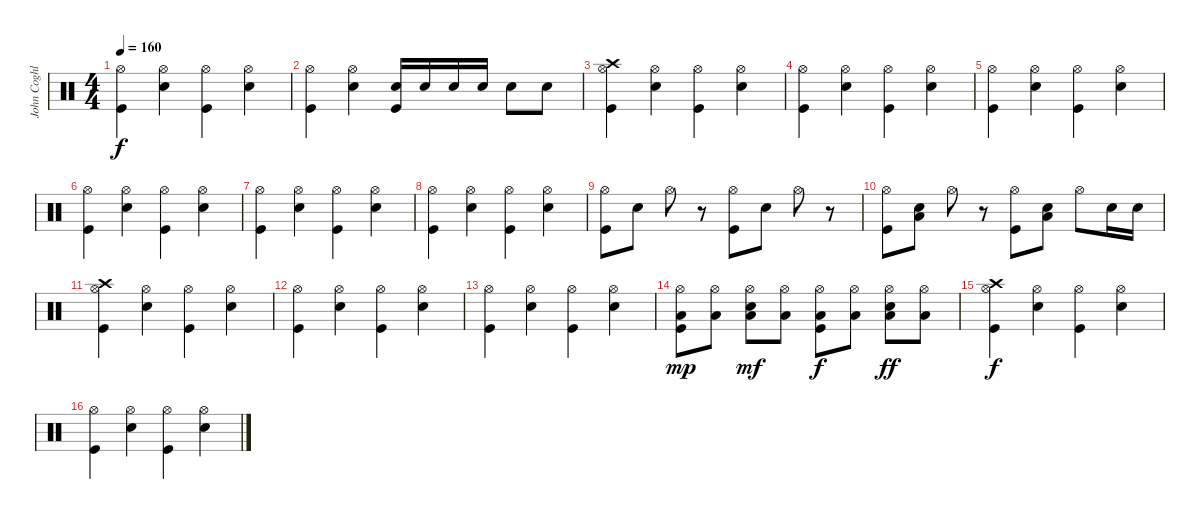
\track ("John Coghlan" "John Coghl") {instrument percussion}
\staff {score}
\articulation defaults
\ts (4 4)
\tempo 160
\clef neutral
\ks c
("Hi-Hat (open)" "Kick (hit)").4{dy f} ("Electric Snare (hit)" "Hi-Hat (open)").4 ("Hi-Hat (open)" "Kick (hit)").4 ("Electric Snare (hit)" "Hi-Hat (open)").4 |
("Hi-Hat (open)" "Kick (hit)").4 ("Electric Snare (hit)" "Hi-Hat (open)").4 ("Electric Snare (hit)" "Kick (hit)").16 "Electric Snare (hit)".16 "Electric Snare (hit)".16 "Electric Snare (hit)".16 "Electric Snare (hit)".8 "Electric Snare (hit)".8 |
("Crash high (hit)" "Hi-Hat (open)" "Kick (hit)").4 ("Hi-Hat (open)" "Electric Snare (hit)").4 ("Hi-Hat (open)" "Kick (hit)").4 ("Hi-Hat (open)" "Electric Snare (hit)").4 |
("Hi-Hat (open)" "Kick (hit)").4 ("Hi-Hat (open)" "Electric Snare (hit)").4 ("Hi-Hat (open)" "Kick (hit)").4 ("Hi-Hat (open)" "Electric Snare (hit)").4 |
("Hi-Hat (open)" "Kick (hit)").4 ("Hi-Hat (open)" "Electric Snare (hit)").4 ("Hi-Hat (open)" "Kick (hit)").4 ("Hi-Hat (open)" "Electric Snare (hit)").4 |
("Hi-Hat (open)" "Kick (hit)").4 ("Electric Snare (hit)" "Hi-Hat (open)").4 ("Hi-Hat (open)" "Kick (hit)").4 ("Electric Snare (hit)" "Hi-Hat (open)").4 |
("Hi-Hat (open)" "Kick (hit)").4 ("Electric Snare (hit)" "Hi-Hat (open)").4 ("Hi-Hat (open)" "Kick (hit)").4 ("Electric Snare (hit)" "Hi-Hat (open)").4 |
("Hi-Hat (open)" "Kick (hit)").4 ("Electric Snare (hit)" "Hi-Hat (open)").4 ("Hi-Hat (open)" "Kick (hit)").4 ("Electric Snare (hit)" "Hi-Hat (open)").4 |
("Hi-Hat (open)" "Kick (hit)").8 "Electric Snare (hit)".8 "Hi-Hat (open)".8 r.8 ("Hi-Hat (open)" "Kick (hit)").8 "Electric Snare (hit)".8 "Hi-Hat (open)".8 r.8 |
("Hi-Hat (open)" "Kick (hit)").8 ("Electric Snare (hit)" "Low Tom (hit)").8 "Hi-Hat (open)".8 r.8 ("Hi-Hat (open)" "Kick (hit)").8 ("Electric Snare (hit)" "Low Floor Tom (hit)").8 "Hi-Hat (open)".8 "Electric Snare (hit)".16 "Electric Snare (hit)".16 |
("Crash high (hit)" "Hi-Hat (open)" "Kick (hit)").4 ("Electric Snare (hit)" "Hi-Hat (open)").4 ("Hi-Hat (open)" "Kick (hit)").4 ("Electric Snare (hit)" "Hi-Hat (open)").4 |
("Hi-Hat (open)" "Kick (hit)").4 ("Electric Snare (hit)" "Hi-Hat (open)").4 ("Hi-Hat (open)" "Kick (hit)").4 ("Electric Snare (hit)" "Hi-Hat (open)").4 |
("Hi-Hat (open)" "Kick (hit)").4 ("Electric Snare (hit)" "Hi-Hat (open)").4 ("Hi-Hat (open)" "Kick (hit)").4 ("Electric Snare (hit)" "Hi-Hat (open)").4 |
("Low Floor Tom (hit)" "Hi-Hat (open)" "Kick (hit)").8{dy mp} ("Low Floor Tom (hit)" "Hi-Hat (open)").8 ("Low Floor Tom (hit)" "Electric Snare (hit)" "Hi-Hat (open)").8{dy mf} ("Low Floor Tom (hit)" "Hi-Hat (open)").8 ("Low Floor Tom (hit)" "Hi-Hat (open)" "Kick (hit)").8{dy f} ("Low Floor Tom (hit)" "Hi-Hat (open)").8 ("Low Floor Tom (hit)" "Electric Snare (hit)" "Hi-Hat (open)").8{dy ff} ("Low Floor Tom (hit)" "Hi-Hat (open)").8 |
("Crash high (hit)" "Hi-Hat (open)" "Kick (hit)").4{dy f} ("Electric Snare (hit)" "Hi-Hat (open)").4 ("Hi-Hat (open)" "Kick (hit)").4 ("Electric Snare (hit)" "Hi-Hat (open)").4 |
("Hi-Hat (open)" "Kick (hit)").4 ("Electric Snare (hit)" "Hi-Hat (open)").4 ("Hi-Hat (open)" "Kick (hit)").4 ("Electric Snare (hit)" "Hi-Hat (open)").4
